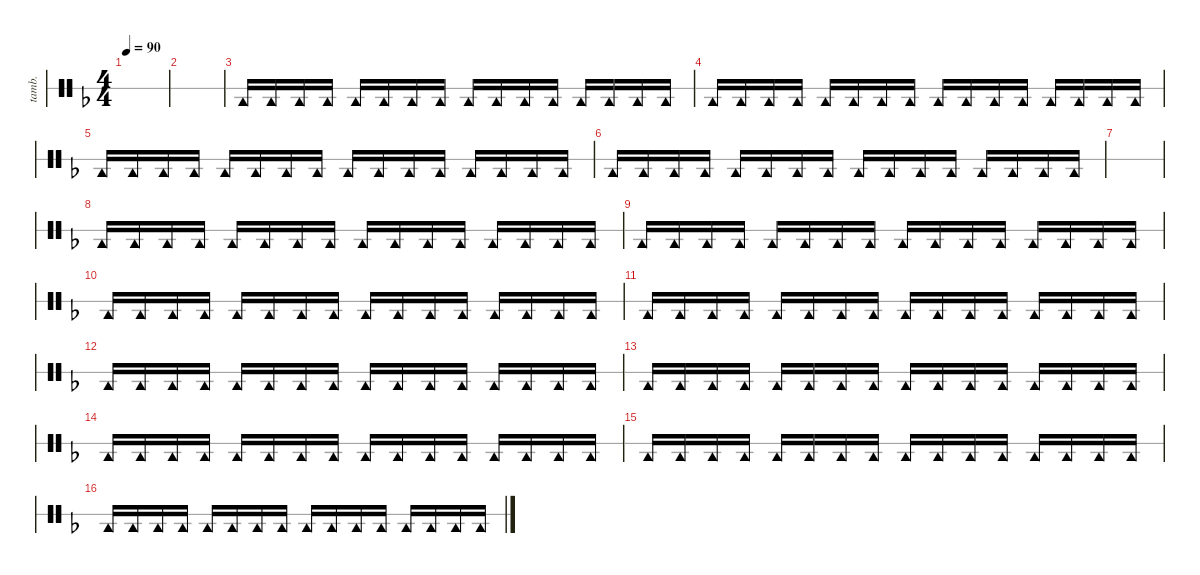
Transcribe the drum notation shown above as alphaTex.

\defaultSystemsLayout 4
\hideDynamics
\bracketExtendMode nobrackets
\track ("Tambourine" "tamb.") {instrument percussion}
\staff {score 1}
\articulation defaults
\ts (4 4)
\tempo 90
\clef neutral
\ks f
|
|
"Tambourine (hit)"{acc forcenatural}.16 "Tambourine (hit)"{acc forcenatural}.16 "Tambourine (hit)"{acc forcenatural}.16 "Tambourine (hit)"{acc forcenatural}.16 "Tambourine (hit)"{acc forcenatural}.16 "Tambourine (hit)"{acc forcenatural}.16 "Tambourine (hit)"{acc forcenatural}.16 "Tambourine (hit)"{acc forcenatural}.16 "Tambourine (hit)"{acc forcenatural}.16 "Tambourine (hit)"{acc forcenatural}.16 "Tambourine (hit)"{acc forcenatural}.16 "Tambourine (hit)"{acc forcenatural}.16 "Tambourine (hit)"{acc forcenatural}.16 "Tambourine (hit)"{acc forcenatural}.16 "Tambourine (hit)"{acc forcenatural}.16 "Tambourine (hit)"{acc forcenatural}.16 |
"Tambourine (hit)"{acc forcenatural}.16 "Tambourine (hit)"{acc forcenatural}.16 "Tambourine (hit)"{acc forcenatural}.16 "Tambourine (hit)"{acc forcenatural}.16 "Tambourine (hit)"{acc forcenatural}.16 "Tambourine (hit)"{acc forcenatural}.16 "Tambourine (hit)"{acc forcenatural}.16 "Tambourine (hit)"{acc forcenatural}.16 "Tambourine (hit)"{acc forcenatural}.16 "Tambourine (hit)"{acc forcenatural}.16 "Tambourine (hit)"{acc forcenatural}.16 "Tambourine (hit)"{acc forcenatural}.16 "Tambourine (hit)"{acc forcenatural}.16 "Tambourine (hit)"{acc forcenatural}.16 "Tambourine (hit)"{acc forcenatural}.16 "Tambourine (hit)"{acc forcenatural}.16 |
"Tambourine (hit)"{acc forcenatural}.16 "Tambourine (hit)"{acc forcenatural}.16 "Tambourine (hit)"{acc forcenatural}.16 "Tambourine (hit)"{acc forcenatural}.16 "Tambourine (hit)"{acc forcenatural}.16 "Tambourine (hit)"{acc forcenatural}.16 "Tambourine (hit)"{acc forcenatural}.16 "Tambourine (hit)"{acc forcenatural}.16 "Tambourine (hit)"{acc forcenatural}.16 "Tambourine (hit)"{acc forcenatural}.16 "Tambourine (hit)"{acc forcenatural}.16 "Tambourine (hit)"{acc forcenatural}.16 "Tambourine (hit)"{acc forcenatural}.16 "Tambourine (hit)"{acc forcenatural}.16 "Tambourine (hit)"{acc forcenatural}.16 "Tambourine (hit)"{acc forcenatural}.16 |
"Tambourine (hit)"{acc forcenatural}.16 "Tambourine (hit)"{acc forcenatural}.16 "Tambourine (hit)"{acc forcenatural}.16 "Tambourine (hit)"{acc forcenatural}.16 "Tambourine (hit)"{acc forcenatural}.16 "Tambourine (hit)"{acc forcenatural}.16 "Tambourine (hit)"{acc forcenatural}.16 "Tambourine (hit)"{acc forcenatural}.16 "Tambourine (hit)"{acc forcenatural}.16 "Tambourine (hit)"{acc forcenatural}.16 "Tambourine (hit)"{acc forcenatural}.16 "Tambourine (hit)"{acc forcenatural}.16 "Tambourine (hit)"{acc forcenatural}.16 "Tambourine (hit)"{acc forcenatural}.16 "Tambourine (hit)"{acc forcenatural}.16 "Tambourine (hit)"{acc forcenatural}.16 |
|
"Tambourine (hit)"{acc forcenatural}.16 "Tambourine (hit)"{acc forcenatural}.16 "Tambourine (hit)"{acc forcenatural}.16 "Tambourine (hit)"{acc forcenatural}.16 "Tambourine (hit)"{acc forcenatural}.16 "Tambourine (hit)"{acc forcenatural}.16 "Tambourine (hit)"{acc forcenatural}.16 "Tambourine (hit)"{acc forcenatural}.16 "Tambourine (hit)"{acc forcenatural}.16 "Tambourine (hit)"{acc forcenatural}.16 "Tambourine (hit)"{acc forcenatural}.16 "Tambourine (hit)"{acc forcenatural}.16 "Tambourine (hit)"{acc forcenatural}.16 "Tambourine (hit)"{acc forcenatural}.16 "Tambourine (hit)"{acc forcenatural}.16 "Tambourine (hit)"{acc forcenatural}.16 |
"Tambourine (hit)"{acc forcenatural}.16 "Tambourine (hit)"{acc forcenatural}.16 "Tambourine (hit)"{acc forcenatural}.16 "Tambourine (hit)"{acc forcenatural}.16 "Tambourine (hit)"{acc forcenatural}.16 "Tambourine (hit)"{acc forcenatural}.16 "Tambourine (hit)"{acc forcenatural}.16 "Tambourine (hit)"{acc forcenatural}.16 "Tambourine (hit)"{acc forcenatural}.16 "Tambourine (hit)"{acc forcenatural}.16 "Tambourine (hit)"{acc forcenatural}.16 "Tambourine (hit)"{acc forcenatural}.16 "Tambourine (hit)"{acc forcenatural}.16 "Tambourine (hit)"{acc forcenatural}.16 "Tambourine (hit)"{acc forcenatural}.16 "Tambourine (hit)"{acc forcenatural}.16 |
"Tambourine (hit)"{acc forcenatural}.16 "Tambourine (hit)"{acc forcenatural}.16 "Tambourine (hit)"{acc forcenatural}.16 "Tambourine (hit)"{acc forcenatural}.16 "Tambourine (hit)"{acc forcenatural}.16 "Tambourine (hit)"{acc forcenatural}.16 "Tambourine (hit)"{acc forcenatural}.16 "Tambourine (hit)"{acc forcenatural}.16 "Tambourine (hit)"{acc forcenatural}.16 "Tambourine (hit)"{acc forcenatural}.16 "Tambourine (hit)"{acc forcenatural}.16 "Tambourine (hit)"{acc forcenatural}.16 "Tambourine (hit)"{acc forcenatural}.16 "Tambourine (hit)"{acc forcenatural}.16 "Tambourine (hit)"{acc forcenatural}.16 "Tambourine (hit)"{acc forcenatural}.16 |
"Tambourine (hit)"{acc forcenatural}.16 "Tambourine (hit)"{acc forcenatural}.16 "Tambourine (hit)"{acc forcenatural}.16 "Tambourine (hit)"{acc forcenatural}.16 "Tambourine (hit)"{acc forcenatural}.16 "Tambourine (hit)"{acc forcenatural}.16 "Tambourine (hit)"{acc forcenatural}.16 "Tambourine (hit)"{acc forcenatural}.16 "Tambourine (hit)"{acc forcenatural}.16 "Tambourine (hit)"{acc forcenatural}.16 "Tambourine (hit)"{acc forcenatural}.16 "Tambourine (hit)"{acc forcenatural}.16 "Tambourine (hit)"{acc forcenatural}.16 "Tambourine (hit)"{acc forcenatural}.16 "Tambourine (hit)"{acc forcenatural}.16 "Tambourine (hit)"{acc forcenatural}.16 |
"Tambourine (hit)"{acc forcenatural}.16 "Tambourine (hit)"{acc forcenatural}.16 "Tambourine (hit)"{acc forcenatural}.16 "Tambourine (hit)"{acc forcenatural}.16 "Tambourine (hit)"{acc forcenatural}.16 "Tambourine (hit)"{acc forcenatural}.16 "Tambourine (hit)"{acc forcenatural}.16 "Tambourine (hit)"{acc forcenatural}.16 "Tambourine (hit)"{acc forcenatural}.16 "Tambourine (hit)"{acc forcenatural}.16 "Tambourine (hit)"{acc forcenatural}.16 "Tambourine (hit)"{acc forcenatural}.16 "Tambourine (hit)"{acc forcenatural}.16 "Tambourine (hit)"{acc forcenatural}.16 "Tambourine (hit)"{acc forcenatural}.16 "Tambourine (hit)"{acc forcenatural}.16 |
"Tambourine (hit)"{acc forcenatural}.16 "Tambourine (hit)"{acc forcenatural}.16 "Tambourine (hit)"{acc forcenatural}.16 "Tambourine (hit)"{acc forcenatural}.16 "Tambourine (hit)"{acc forcenatural}.16 "Tambourine (hit)"{acc forcenatural}.16 "Tambourine (hit)"{acc forcenatural}.16 "Tambourine (hit)"{acc forcenatural}.16 "Tambourine (hit)"{acc forcenatural}.16 "Tambourine (hit)"{acc forcenatural}.16 "Tambourine (hit)"{acc forcenatural}.16 "Tambourine (hit)"{acc forcenatural}.16 "Tambourine (hit)"{acc forcenatural}.16 "Tambourine (hit)"{acc forcenatural}.16 "Tambourine (hit)"{acc forcenatural}.16 "Tambourine (hit)"{acc forcenatural}.16 |
"Tambourine (hit)"{acc forcenatural}.16 "Tambourine (hit)"{acc forcenatural}.16 "Tambourine (hit)"{acc forcenatural}.16 "Tambourine (hit)"{acc forcenatural}.16 "Tambourine (hit)"{acc forcenatural}.16 "Tambourine (hit)"{acc forcenatural}.16 "Tambourine (hit)"{acc forcenatural}.16 "Tambourine (hit)"{acc forcenatural}.16 "Tambourine (hit)"{acc forcenatural}.16 "Tambourine (hit)"{acc forcenatural}.16 "Tambourine (hit)"{acc forcenatural}.16 "Tambourine (hit)"{acc forcenatural}.16 "Tambourine (hit)"{acc forcenatural}.16 "Tambourine (hit)"{acc forcenatural}.16 "Tambourine (hit)"{acc forcenatural}.16 "Tambourine (hit)"{acc forcenatural}.16 |
"Tambourine (hit)"{acc forcenatural}.16 "Tambourine (hit)"{acc forcenatural}.16 "Tambourine (hit)"{acc forcenatural}.16 "Tambourine (hit)"{acc forcenatural}.16 "Tambourine (hit)"{acc forcenatural}.16 "Tambourine (hit)"{acc forcenatural}.16 "Tambourine (hit)"{acc forcenatural}.16 "Tambourine (hit)"{acc forcenatural}.16 "Tambourine (hit)"{acc forcenatural}.16 "Tambourine (hit)"{acc forcenatural}.16 "Tambourine (hit)"{acc forcenatural}.16 "Tambourine (hit)"{acc forcenatural}.16 "Tambourine (hit)"{acc forcenatural}.16 "Tambourine (hit)"{acc forcenatural}.16 "Tambourine (hit)"{acc forcenatural}.16 "Tambourine (hit)"{acc forcenatural}.16 |
"Tambourine (hit)"{acc forcenatural}.16 "Tambourine (hit)"{acc forcenatural}.16 "Tambourine (hit)"{acc forcenatural}.16 "Tambourine (hit)"{acc forcenatural}.16 "Tambourine (hit)"{acc forcenatural}.16 "Tambourine (hit)"{acc forcenatural}.16 "Tambourine (hit)"{acc forcenatural}.16 "Tambourine (hit)"{acc forcenatural}.16 "Tambourine (hit)"{acc forcenatural}.16 "Tambourine (hit)"{acc forcenatural}.16 "Tambourine (hit)"{acc forcenatural}.16 "Tambourine (hit)"{acc forcenatural}.16 "Tambourine (hit)"{acc forcenatural}.16 "Tambourine (hit)"{acc forcenatural}.16 "Tambourine (hit)"{acc forcenatural}.16 "Tambourine (hit)"{acc forcenatural}.16
